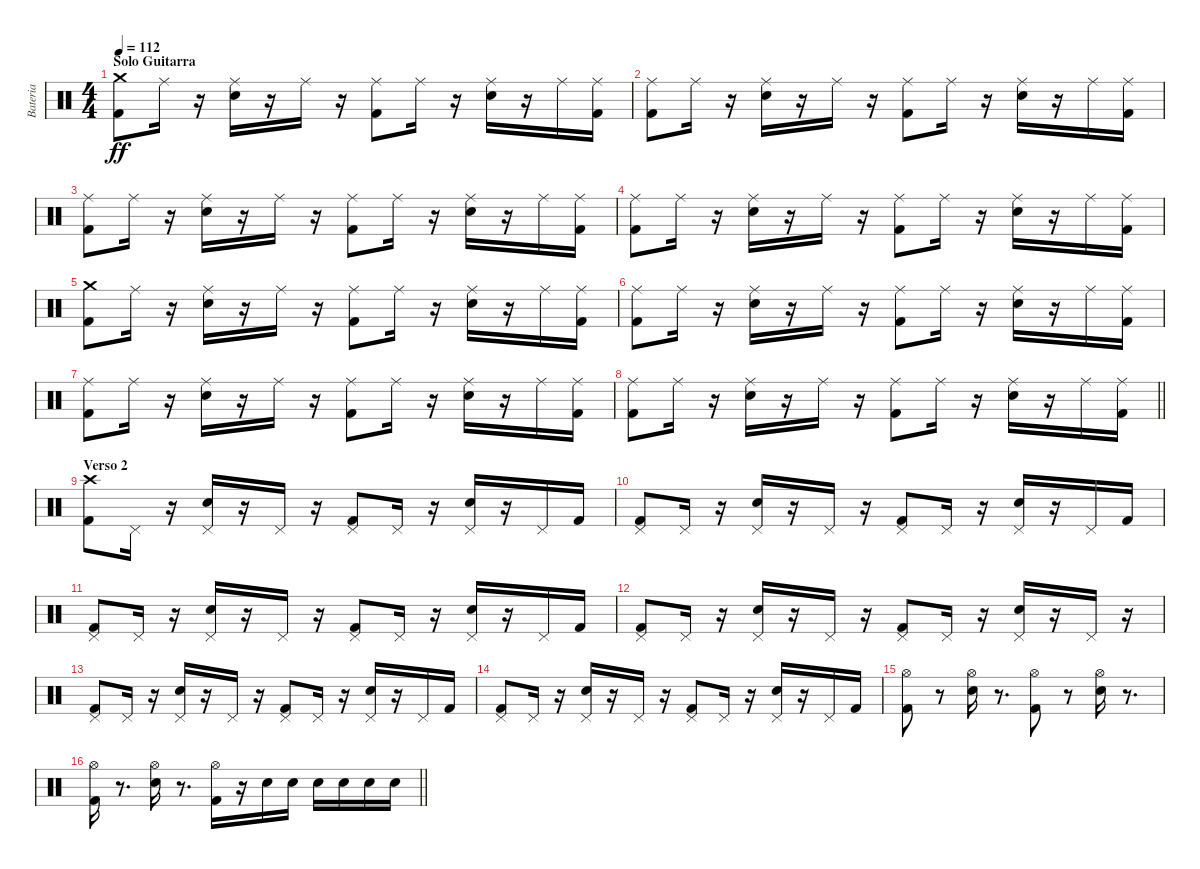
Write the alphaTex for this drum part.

\track ("Bateria" "Bateria") {instrument percussion}
\staff {score}
\articulation defaults
\ts (4 4)
\section ("" "Solo Guitarra")
\tempo 112
\clef neutral
\ks c
("Crash medium (hit)" "Kick (hit) 2").8{dy ff} "Ride (middle)".16 r.16 ("Snare (hit) 2" "Ride (middle)").16 r.16 "Ride (middle)".16 r.16 ("Ride (middle)" "Kick (hit) 2").8 "Ride (middle)".16 r.16 ("Ride (middle)" "Snare (hit) 2").16 r.16 "Ride (middle)".16 ("Ride (middle)" "Kick (hit) 2").16 |
("Ride (middle)" "Kick (hit) 2").8 "Ride (middle)".16 r.16 ("Ride (middle)" "Snare (hit) 2").16 r.16 "Ride (middle)".16 r.16 ("Ride (middle)" "Kick (hit) 2").8 "Ride (middle)".16 r.16 ("Ride (middle)" "Snare (hit) 2").16 r.16 "Ride (middle)".16 ("Ride (middle)" "Kick (hit) 2").16 |
("Kick (hit) 2" "Ride (middle)").8 "Ride (middle)".16 r.16 ("Snare (hit) 2" "Ride (middle)").16 r.16 "Ride (middle)".16 r.16 ("Ride (middle)" "Kick (hit) 2").8 "Ride (middle)".16 r.16 ("Ride (middle)" "Snare (hit) 2").16 r.16 "Ride (middle)".16 ("Ride (middle)" "Kick (hit) 2").16 |
("Ride (middle)" "Kick (hit) 2").8 "Ride (middle)".16 r.16 ("Ride (middle)" "Snare (hit) 2").16 r.16 "Ride (middle)".16 r.16 ("Ride (middle)" "Kick (hit) 2").8 "Ride (middle)".16 r.16 ("Ride (middle)" "Snare (hit) 2").16 r.16 "Ride (middle)".16 ("Ride (middle)" "Kick (hit) 2").16 |
("Crash medium (hit)" "Kick (hit) 2").8 "Ride (middle)".16 r.16 ("Snare (hit) 2" "Ride (middle)").16 r.16 "Ride (middle)".16 r.16 ("Ride (middle)" "Kick (hit) 2").8 "Ride (middle)".16 r.16 ("Ride (middle)" "Snare (hit) 2").16 r.16 "Ride (middle)".16 ("Ride (middle)" "Kick (hit) 2").16 |
("Ride (middle)" "Kick (hit) 2").8 "Ride (middle)".16 r.16 ("Ride (middle)" "Snare (hit) 2").16 r.16 "Ride (middle)".16 r.16 ("Ride (middle)" "Kick (hit) 2").8 "Ride (middle)".16 r.16 ("Ride (middle)" "Snare (hit) 2").16 r.16 "Ride (middle)".16 ("Ride (middle)" "Kick (hit) 2").16 |
("Kick (hit) 2" "Ride (middle)").8 "Ride (middle)".16 r.16 ("Snare (hit) 2" "Ride (middle)").16 r.16 "Ride (middle)".16 r.16 ("Ride (middle)" "Kick (hit) 2").8 "Ride (middle)".16 r.16 ("Ride (middle)" "Snare (hit) 2").16 r.16 "Ride (middle)".16 ("Ride (middle)" "Kick (hit) 2").16 |
\barLineRight lightlight
("Ride (middle)" "Kick (hit) 2").8 "Ride (middle)".16 r.16 ("Ride (middle)" "Snare (hit) 2").16 r.16 "Ride (middle)".16 r.16 ("Ride (middle)" "Kick (hit) 2").8 "Ride (middle)".16 r.16 ("Ride (middle)" "Snare (hit) 2").16 r.16 "Ride (middle)".16 ("Ride (middle)" "Kick (hit) 2").16 |
\section ("" "Verso 2")
("Crash high (hit)" "Kick (hit) 2").8 "Pedal Hi-Hat (hit)".16 r.16 ("Snare (hit) 2" "Pedal Hi-Hat (hit)").16 r.16 "Pedal Hi-Hat (hit)".16 r.16 ("Pedal Hi-Hat (hit)" "Kick (hit) 2").8 "Pedal Hi-Hat (hit)".16 r.16 ("Pedal Hi-Hat (hit)" "Snare (hit) 2").16 r.16 "Pedal Hi-Hat (hit)".16 "Kick (hit) 2".16 |
("Pedal Hi-Hat (hit)" "Kick (hit) 2").8 "Pedal Hi-Hat (hit)".16 r.16 ("Pedal Hi-Hat (hit)" "Snare (hit) 2").16 r.16 "Pedal Hi-Hat (hit)".16 r.16 ("Pedal Hi-Hat (hit)" "Kick (hit) 2").8 "Pedal Hi-Hat (hit)".16 r.16 ("Pedal Hi-Hat (hit)" "Snare (hit) 2").16 r.16 "Pedal Hi-Hat (hit)".16 "Kick (hit) 2".16 |
("Pedal Hi-Hat (hit)" "Kick (hit) 2").8 "Pedal Hi-Hat (hit)".16 r.16 ("Pedal Hi-Hat (hit)" "Snare (hit) 2").16 r.16 "Pedal Hi-Hat (hit)".16 r.16 ("Pedal Hi-Hat (hit)" "Kick (hit) 2").8 "Pedal Hi-Hat (hit)".16 r.16 ("Pedal Hi-Hat (hit)" "Snare (hit) 2").16 r.16 "Pedal Hi-Hat (hit)".16 "Kick (hit) 2".16 |
("Pedal Hi-Hat (hit)" "Kick (hit) 2").8 "Pedal Hi-Hat (hit)".16 r.16 ("Pedal Hi-Hat (hit)" "Snare (hit) 2").16 r.16 "Pedal Hi-Hat (hit)".16 r.16 ("Pedal Hi-Hat (hit)" "Kick (hit) 2").8 "Pedal Hi-Hat (hit)".16 r.16 ("Pedal Hi-Hat (hit)" "Snare (hit) 2").16 r.16 "Pedal Hi-Hat (hit)".16 r.16 |
("Kick (hit) 2" "Pedal Hi-Hat (hit)").8 "Pedal Hi-Hat (hit)".16 r.16 ("Snare (hit) 2" "Pedal Hi-Hat (hit)").16 r.16 "Pedal Hi-Hat (hit)".16 r.16 ("Pedal Hi-Hat (hit)" "Kick (hit) 2").8 "Pedal Hi-Hat (hit)".16 r.16 ("Pedal Hi-Hat (hit)" "Snare (hit) 2").16 r.16 "Pedal Hi-Hat (hit)".16 "Kick (hit) 2".16 |
("Pedal Hi-Hat (hit)" "Kick (hit) 2").8 "Pedal Hi-Hat (hit)".16 r.16 ("Pedal Hi-Hat (hit)" "Snare (hit) 2").16 r.16 "Pedal Hi-Hat (hit)".16 r.16 ("Pedal Hi-Hat (hit)" "Kick (hit) 2").8 "Pedal Hi-Hat (hit)".16 r.16 ("Pedal Hi-Hat (hit)" "Snare (hit) 2").16 r.16 "Pedal Hi-Hat (hit)".16 "Kick (hit) 2".16 |
("Hi-Hat (open)" "Kick (hit) 2").8 r.8 ("Hi-Hat (open)" "Snare (hit) 2").16 r.8{d} ("Hi-Hat (open)" "Kick (hit) 2").8 r.8 ("Hi-Hat (open)" "Snare (hit) 2").16 r.8{d} |
\barLineRight lightlight
("Kick (hit) 2" "Hi-Hat (open)").16 r.8{d} ("Snare (hit) 2" "Hi-Hat (open)").16 r.8{d} ("Kick (hit) 2" "Hi-Hat (open)").16 r.16 "Snare (hit) 2".16 "Snare (hit) 2".16 "Snare (hit) 2".16 "Snare (hit) 2".16 "Snare (hit) 2".16 "Snare (hit) 2".16
